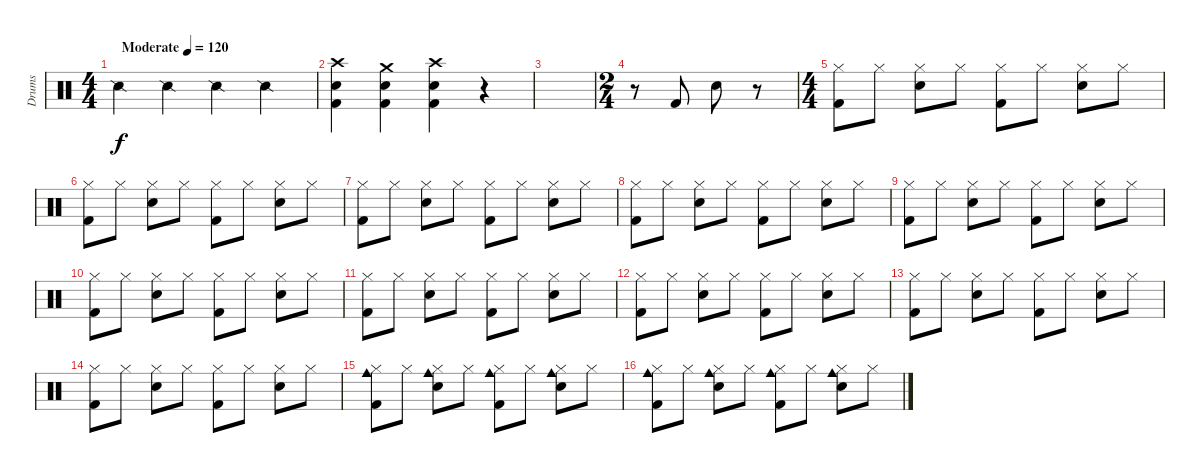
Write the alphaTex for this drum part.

\track ("Drums" "Drums") {instrument percussion}
\staff {score}
\articulation defaults
\ts (4 4)
\tempo (120 "Moderate")
\clef neutral
\ks c "Snare (side stick) 2".4{dy f} "Snare (side stick) 2".4 "Snare (side stick) 2".4 "Snare (side stick) 2".4
|
("Crash high (hit)" "Electric Snare (hit)" "Kick (hit) 2").4 ("Crash medium (hit)" "Electric Snare (hit)" "Kick (hit) 2").4 ("Crash high (hit)" "Electric Snare (hit)" "Kick (hit) 2").4 r.4 |
|
\ts (2 4)
r.8 "Kick (hit) 2".8 "Snare (hit) 2".8 r.8 |
\ts (4 4)
("Hi-Hat (closed)" "Kick (hit) 2").8 "Hi-Hat (closed)".8 ("Hi-Hat (closed)" "Snare (hit) 2").8 "Hi-Hat (closed)".8 ("Hi-Hat (closed)" "Kick (hit) 2").8 "Hi-Hat (closed)".8 ("Hi-Hat (closed)" "Snare (hit) 2").8 "Hi-Hat (closed)".8 |
("Hi-Hat (closed)" "Kick (hit) 2").8 "Hi-Hat (closed)".8 ("Hi-Hat (closed)" "Snare (hit) 2").8 "Hi-Hat (closed)".8 ("Hi-Hat (closed)" "Kick (hit) 2").8 "Hi-Hat (closed)".8 ("Hi-Hat (closed)" "Snare (hit) 2").8 "Hi-Hat (closed)".8 |
("Hi-Hat (closed)" "Kick (hit) 2").8 "Hi-Hat (closed)".8 ("Hi-Hat (closed)" "Snare (hit) 2").8 "Hi-Hat (closed)".8 ("Hi-Hat (closed)" "Kick (hit) 2").8 "Hi-Hat (closed)".8 ("Hi-Hat (closed)" "Snare (hit) 2").8 "Hi-Hat (closed)".8 |
("Hi-Hat (closed)" "Kick (hit) 2").8 "Hi-Hat (closed)".8 ("Hi-Hat (closed)" "Snare (hit) 2").8 "Hi-Hat (closed)".8 ("Hi-Hat (closed)" "Kick (hit) 2").8 "Hi-Hat (closed)".8 ("Hi-Hat (closed)" "Snare (hit) 2").8 "Hi-Hat (closed)".8 |
("Hi-Hat (closed)" "Kick (hit) 2").8 "Hi-Hat (closed)".8 ("Hi-Hat (closed)" "Snare (hit) 2").8 "Hi-Hat (closed)".8 ("Hi-Hat (closed)" "Kick (hit) 2").8 "Hi-Hat (closed)".8 ("Hi-Hat (closed)" "Snare (hit) 2").8 "Hi-Hat (closed)".8 |
("Hi-Hat (closed)" "Kick (hit) 2").8 "Hi-Hat (closed)".8 ("Hi-Hat (closed)" "Snare (hit) 2").8 "Hi-Hat (closed)".8 ("Hi-Hat (closed)" "Kick (hit) 2").8 "Hi-Hat (closed)".8 ("Hi-Hat (closed)" "Snare (hit) 2").8 "Hi-Hat (closed)".8 |
("Hi-Hat (closed)" "Kick (hit) 2").8 "Hi-Hat (closed)".8 ("Hi-Hat (closed)" "Snare (hit) 2").8 "Hi-Hat (closed)".8 ("Hi-Hat (closed)" "Kick (hit) 2").8 "Hi-Hat (closed)".8 ("Hi-Hat (closed)" "Snare (hit) 2").8 "Hi-Hat (closed)".8 |
("Hi-Hat (closed)" "Kick (hit) 2").8 "Hi-Hat (closed)".8 ("Hi-Hat (closed)" "Snare (hit) 2").8 "Hi-Hat (closed)".8 ("Hi-Hat (closed)" "Kick (hit) 2").8 "Hi-Hat (closed)".8 ("Hi-Hat (closed)" "Snare (hit) 2").8 "Hi-Hat (closed)".8 |
("Hi-Hat (closed)" "Kick (hit) 2").8 "Hi-Hat (closed)".8 ("Hi-Hat (closed)" "Snare (hit) 2").8 "Hi-Hat (closed)".8 ("Hi-Hat (closed)" "Kick (hit) 2").8 "Hi-Hat (closed)".8 ("Hi-Hat (closed)" "Snare (hit) 2").8 "Hi-Hat (closed)".8 |
("Hi-Hat (closed)" "Kick (hit) 2").8 "Hi-Hat (closed)".8 ("Hi-Hat (closed)" "Snare (hit) 2").8 "Hi-Hat (closed)".8 ("Hi-Hat (closed)" "Kick (hit) 2").8 "Hi-Hat (closed)".8 ("Hi-Hat (closed)" "Snare (hit) 2").8 "Hi-Hat (closed)".8 |
("Hi-Hat (closed)" "Kick (hit) 2" "Cowbell medium (hit)").8 "Hi-Hat (closed)".8 ("Hi-Hat (closed)" "Snare (hit) 2" "Cowbell medium (hit)").8 "Hi-Hat (closed)".8 ("Hi-Hat (closed)" "Kick (hit) 2" "Cowbell medium (hit)").8 "Hi-Hat (closed)".8 ("Hi-Hat (closed)" "Snare (hit) 2" "Cowbell medium (hit)").8 "Hi-Hat (closed)".8 |
("Hi-Hat (closed)" "Kick (hit) 2" "Cowbell medium (hit)").8 "Hi-Hat (closed)".8 ("Hi-Hat (closed)" "Snare (hit) 2" "Cowbell medium (hit)").8 "Hi-Hat (closed)".8 ("Hi-Hat (closed)" "Kick (hit) 2" "Cowbell medium (hit)").8 "Hi-Hat (closed)".8 ("Hi-Hat (closed)" "Snare (hit) 2" "Cowbell medium (hit)").8 "Hi-Hat (closed)".8
